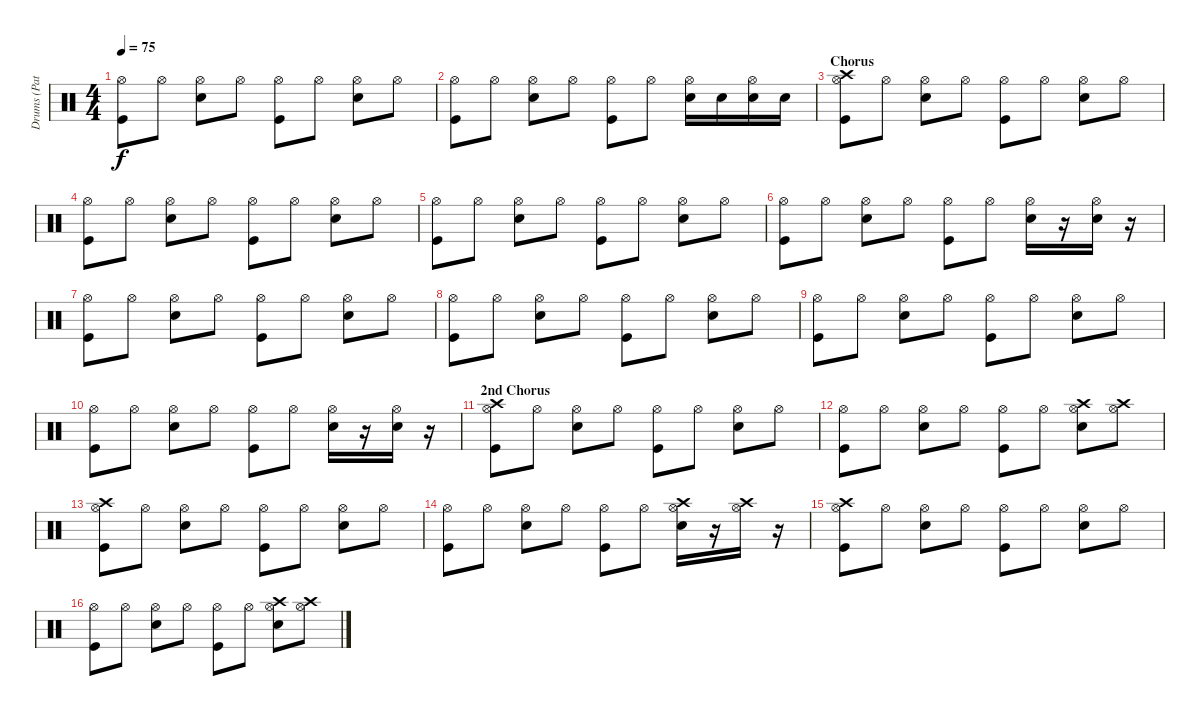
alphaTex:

\track ("Drums (Patrick Wilson)" "Drums (Pat") {instrument percussion}
\staff {score}
\articulation defaults
\ts (4 4)
\tempo 75
\clef neutral
\ks c
("Hi-Hat (open)" "Kick (hit)").8{dy f} "Hi-Hat (open)".8 ("Hi-Hat (open)" "Electric Snare (hit)").8 "Hi-Hat (open)".8 ("Hi-Hat (open)" "Kick (hit)").8 "Hi-Hat (open)".8 ("Hi-Hat (open)" "Electric Snare (hit)").8 "Hi-Hat (open)".8 |
("Hi-Hat (open)" "Kick (hit)").8 "Hi-Hat (open)".8 ("Hi-Hat (open)" "Electric Snare (hit)").8 "Hi-Hat (open)".8 ("Hi-Hat (open)" "Kick (hit)").8 "Hi-Hat (open)".8 ("Hi-Hat (open)" "Electric Snare (hit)").16 "Electric Snare (hit)".16 ("Hi-Hat (open)" "Electric Snare (hit)").16 "Electric Snare (hit)".16 |
\section ("" "Chorus")
("Crash high (hit)" "Hi-Hat (open)" "Kick (hit)").8 "Hi-Hat (open)".8 ("Hi-Hat (open)" "Electric Snare (hit)").8 "Hi-Hat (open)".8 ("Hi-Hat (open)" "Kick (hit)").8 "Hi-Hat (open)".8 ("Hi-Hat (open)" "Electric Snare (hit)").8 "Hi-Hat (open)".8 |
("Hi-Hat (open)" "Kick (hit)").8 "Hi-Hat (open)".8 ("Hi-Hat (open)" "Electric Snare (hit)").8 "Hi-Hat (open)".8 ("Hi-Hat (open)" "Kick (hit)").8 "Hi-Hat (open)".8 ("Hi-Hat (open)" "Electric Snare (hit)").8 "Hi-Hat (open)".8 |
("Hi-Hat (open)" "Kick (hit)").8 "Hi-Hat (open)".8 ("Hi-Hat (open)" "Electric Snare (hit)").8 "Hi-Hat (open)".8 ("Hi-Hat (open)" "Kick (hit)").8 "Hi-Hat (open)".8 ("Hi-Hat (open)" "Electric Snare (hit)").8 "Hi-Hat (open)".8 |
("Hi-Hat (open)" "Kick (hit)").8 "Hi-Hat (open)".8 ("Hi-Hat (open)" "Electric Snare (hit)").8 "Hi-Hat (open)".8 ("Hi-Hat (open)" "Kick (hit)").8 "Hi-Hat (open)".8 ("Hi-Hat (open)" "Electric Snare (hit)").16 r.16 ("Hi-Hat (open)" "Electric Snare (hit)").16 r.16 |
("Hi-Hat (open)" "Kick (hit)").8 "Hi-Hat (open)".8 ("Hi-Hat (open)" "Electric Snare (hit)").8 "Hi-Hat (open)".8 ("Hi-Hat (open)" "Kick (hit)").8 "Hi-Hat (open)".8 ("Hi-Hat (open)" "Electric Snare (hit)").8 "Hi-Hat (open)".8 |
("Hi-Hat (open)" "Kick (hit)").8 "Hi-Hat (open)".8 ("Hi-Hat (open)" "Electric Snare (hit)").8 "Hi-Hat (open)".8 ("Hi-Hat (open)" "Kick (hit)").8 "Hi-Hat (open)".8 ("Hi-Hat (open)" "Electric Snare (hit)").8 "Hi-Hat (open)".8 |
("Hi-Hat (open)" "Kick (hit)").8 "Hi-Hat (open)".8 ("Hi-Hat (open)" "Electric Snare (hit)").8 "Hi-Hat (open)".8 ("Hi-Hat (open)" "Kick (hit)").8 "Hi-Hat (open)".8 ("Hi-Hat (open)" "Electric Snare (hit)").8 "Hi-Hat (open)".8 |
("Hi-Hat (open)" "Kick (hit)").8 "Hi-Hat (open)".8 ("Hi-Hat (open)" "Electric Snare (hit)").8 "Hi-Hat (open)".8 ("Hi-Hat (open)" "Kick (hit)").8 "Hi-Hat (open)".8 ("Hi-Hat (open)" "Electric Snare (hit)").16 r.16 ("Hi-Hat (open)" "Electric Snare (hit)").16 r.16 |
\section ("" "2nd Chorus")
("Crash high (hit)" "Hi-Hat (open)" "Kick (hit)").8 "Hi-Hat (open)".8 ("Hi-Hat (open)" "Electric Snare (hit)").8 "Hi-Hat (open)".8 ("Hi-Hat (open)" "Kick (hit)").8 "Hi-Hat (open)".8 ("Hi-Hat (open)" "Electric Snare (hit)").8 "Hi-Hat (open)".8 |
("Hi-Hat (open)" "Kick (hit)").8 "Hi-Hat (open)".8 ("Hi-Hat (open)" "Electric Snare (hit)").8 "Hi-Hat (open)".8 ("Hi-Hat (open)" "Kick (hit)").8 "Hi-Hat (open)".8 ("Crash high (hit)" "Hi-Hat (open)" "Electric Snare (hit)").8 ("Crash high (hit)" "Hi-Hat (open)").8 |
("Crash high (hit)" "Hi-Hat (open)" "Kick (hit)").8 "Hi-Hat (open)".8 ("Hi-Hat (open)" "Electric Snare (hit)").8 "Hi-Hat (open)".8 ("Hi-Hat (open)" "Kick (hit)").8 "Hi-Hat (open)".8 ("Hi-Hat (open)" "Electric Snare (hit)").8 "Hi-Hat (open)".8 |
("Hi-Hat (open)" "Kick (hit)").8 "Hi-Hat (open)".8 ("Hi-Hat (open)" "Electric Snare (hit)").8 "Hi-Hat (open)".8 ("Hi-Hat (open)" "Kick (hit)").8 "Hi-Hat (open)".8 ("Crash high (hit)" "Hi-Hat (open)" "Electric Snare (hit)").16 r.16 ("Crash high (hit)" "Hi-Hat (open)").16 r.16 |
("Crash high (hit)" "Hi-Hat (open)" "Kick (hit)").8 "Hi-Hat (open)".8 ("Hi-Hat (open)" "Electric Snare (hit)").8 "Hi-Hat (open)".8 ("Hi-Hat (open)" "Kick (hit)").8 "Hi-Hat (open)".8 ("Hi-Hat (open)" "Electric Snare (hit)").8 "Hi-Hat (open)".8 |
("Hi-Hat (open)" "Kick (hit)").8 "Hi-Hat (open)".8 ("Hi-Hat (open)" "Electric Snare (hit)").8 "Hi-Hat (open)".8 ("Hi-Hat (open)" "Kick (hit)").8 "Hi-Hat (open)".8 ("Crash high (hit)" "Hi-Hat (open)" "Electric Snare (hit)").8 ("Crash high (hit)" "Hi-Hat (open)").8
